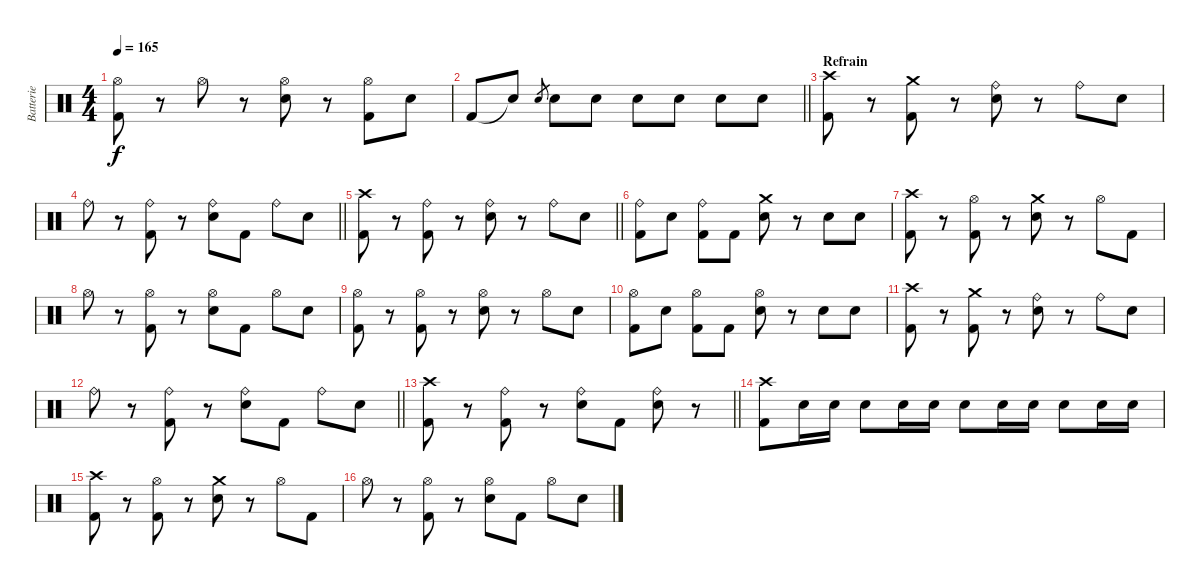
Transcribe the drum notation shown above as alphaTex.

\track ("Batterie" "Batterie") {instrument percussion}
\staff {score}
\articulation defaults
\ts (4 4)
\tempo 165
\clef neutral
\ks c
("Hi-Hat (open)" "Kick (hit) 2").8{dy f} r.8 "Hi-Hat (open)".8 r.8 ("Hi-Hat (open)" "Electric Snare (hit)").8 r.8 ("Hi-Hat (open)" "Kick (hit) 2").8 "Electric Snare (hit)".8 |
\barLineRight lightlight "Kick (hit) 2".8 "Snare (hit)"{t}.8 "Electric Snare (hit)".8{gr} "Electric Snare (hit)".8 "Electric Snare (hit)".8 "Electric Snare (hit)".8 "Electric Snare (hit)".8 "Electric Snare (hit)".8 "Electric Snare (hit)".8
|
\section ("" "Refrain")
("Crash high (hit)" "Kick (hit) 2").8 r.8 ("Crash medium (hit)" "Kick (hit) 2").8 r.8 ("Ride (bell)" "Electric Snare (hit)").8 r.8 "Ride (bell)".8 "Electric Snare (hit)".8 |
\barLineRight lightlight "Ride (bell)".8
r.8 ("Ride (bell)" "Kick (hit) 2").8 r.8 ("Ride (bell)" "Electric Snare (hit)").8 "Kick (hit) 2".8 "Ride (bell)".8 "Electric Snare (hit)".8 |
\barLineRight lightlight
("Crash high (hit)" "Kick (hit) 2").8 r.8 ("Ride (bell)" "Kick (hit) 2").8 r.8 ("Ride (bell)" "Electric Snare (hit)").8 r.8 "Ride (bell)".8 "Electric Snare (hit)".8 |
("Ride (bell)" "Kick (hit) 2").8 "Electric Snare (hit)".8 ("Ride (bell)" "Kick (hit) 2").8 "Kick (hit) 2".8 ("Crash medium (hit)" "Electric Snare (hit)").8 r.8 "Electric Snare (hit)".8 "Electric Snare (hit)".8 |
("Crash high (hit)" "Kick (hit) 2").8 r.8 ("Hi-Hat (open)" "Kick (hit) 2").8 r.8 ("Crash medium (hit)" "Electric Snare (hit)").8 r.8 "Hi-Hat (open)".8 "Kick (hit) 2".8 |
"Hi-Hat (open)".8 r.8 ("Hi-Hat (open)" "Kick (hit) 2").8 r.8 ("Hi-Hat (open)" "Electric Snare (hit)").8 "Kick (hit) 2".8 "Hi-Hat (open)".8 "Electric Snare (hit)".8 |
("Hi-Hat (open)" "Kick (hit) 2").8 r.8 ("Hi-Hat (open)" "Kick (hit) 2").8 r.8 ("Hi-Hat (open)" "Electric Snare (hit)").8 r.8 "Hi-Hat (open)".8 "Electric Snare (hit)".8 |
("Hi-Hat (open)" "Kick (hit) 2").8 "Electric Snare (hit)".8 ("Hi-Hat (open)" "Kick (hit) 2").8 "Kick (hit) 2".8 ("Hi-Hat (open)" "Electric Snare (hit)").8 r.8 "Electric Snare (hit)".8 "Electric Snare (hit)".8 |
("Crash high (hit)" "Kick (hit) 2").8 r.8 ("Crash medium (hit)" "Kick (hit) 2").8 r.8 ("Ride (bell)" "Electric Snare (hit)").8 r.8 "Ride (bell)".8 "Electric Snare (hit)".8 |
\barLineRight lightlight "Ride (bell)".8
r.8 ("Ride (bell)" "Kick (hit) 2").8 r.8 ("Ride (bell)" "Electric Snare (hit)").8 "Kick (hit) 2".8 "Ride (bell)".8 "Electric Snare (hit)".8 |
\barLineRight lightlight
("Crash high (hit)" "Kick (hit) 2").8 r.8 ("Ride (bell)" "Kick (hit) 2").8 r.8 ("Ride (bell)" "Electric Snare (hit)").8 "Kick (hit) 2".8 ("Ride (bell)" "Electric Snare (hit)").8 r.8 |
("Crash high (hit)" "Kick (hit) 2").8 "Electric Snare (hit)".16 "Electric Snare (hit)".16 "Electric Snare (hit)".8 "Electric Snare (hit)".16 "Electric Snare (hit)".16 "Electric Snare (hit)".8 "Electric Snare (hit)".16 "Electric Snare (hit)".16 "Electric Snare (hit)".8 "Electric Snare (hit)".16 "Electric Snare (hit)".16 |
("Crash high (hit)" "Kick (hit) 2").8 r.8 ("Hi-Hat (open)" "Kick (hit) 2").8 r.8 ("Crash medium (hit)" "Electric Snare (hit)").8 r.8 "Hi-Hat (open)".8 "Kick (hit) 2".8 |
"Hi-Hat (open)".8 r.8 ("Hi-Hat (open)" "Kick (hit) 2").8 r.8 ("Hi-Hat (open)" "Electric Snare (hit)").8 "Kick (hit) 2".8 "Hi-Hat (open)".8 "Electric Snare (hit)".8
